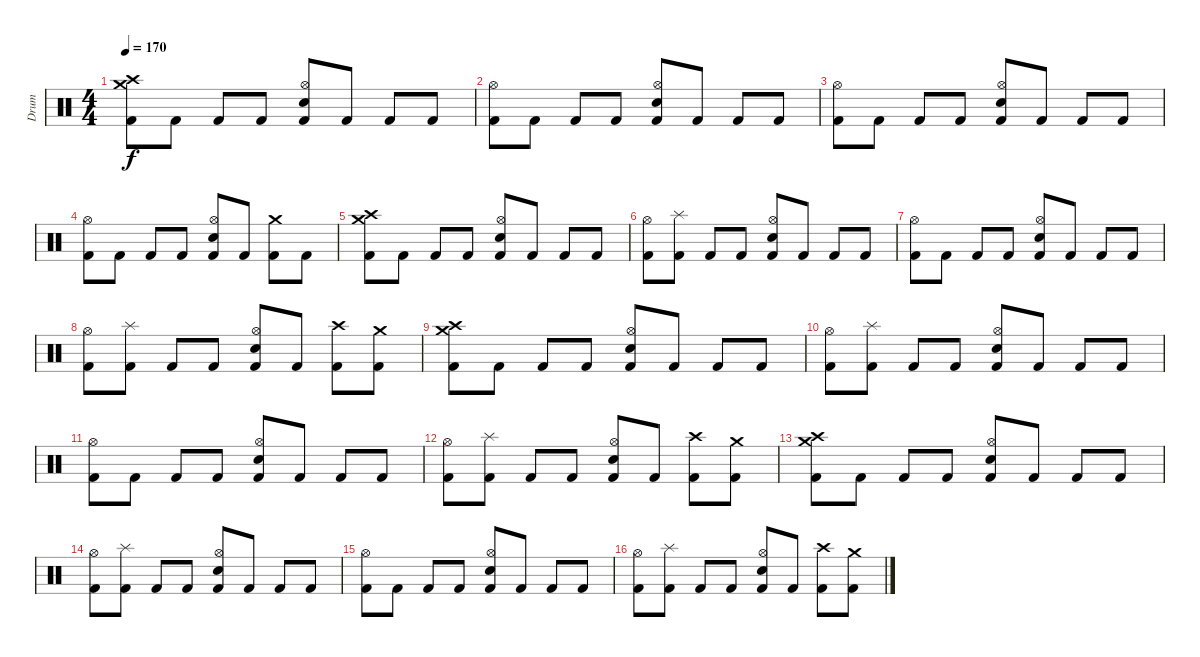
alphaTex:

\track ("Drum" "Drum") {instrument percussion}
\staff {score}
\articulation defaults
\ts (4 4)
\tempo 170
\clef neutral
\ks c
("Crash high (hit)" "Crash medium (hit)" "Kick (hit) 2").8{dy f} "Kick (hit) 2".8 "Kick (hit) 2".8 "Kick (hit) 2".8 ("Hi-Hat (open)" "Snare (hit) 2" "Kick (hit) 2").8 "Kick (hit) 2".8 "Kick (hit) 2".8 "Kick (hit) 2".8 |
("Hi-Hat (open)" "Kick (hit) 2").8 "Kick (hit) 2".8 "Kick (hit) 2".8 "Kick (hit) 2".8 ("Hi-Hat (open)" "Snare (hit) 2" "Kick (hit) 2").8 "Kick (hit) 2".8 "Kick (hit) 2".8 "Kick (hit) 2".8 |
("Hi-Hat (open)" "Kick (hit) 2").8 "Kick (hit) 2".8 "Kick (hit) 2".8 "Kick (hit) 2".8 ("Hi-Hat (open)" "Snare (hit) 2" "Kick (hit) 2").8 "Kick (hit) 2".8 "Kick (hit) 2".8 "Kick (hit) 2".8 |
("Hi-Hat (open)" "Kick (hit) 2").8 "Kick (hit) 2".8 "Kick (hit) 2".8 "Kick (hit) 2".8 ("Hi-Hat (open)" "Snare (hit) 2" "Kick (hit) 2").8 "Kick (hit) 2".8 ("Crash medium (hit)" "Kick (hit) 2").8 "Kick (hit) 2".8 |
("Crash high (hit)" "Crash medium (hit)" "Kick (hit) 2").8 "Kick (hit) 2".8 "Kick (hit) 2".8 "Kick (hit) 2".8 ("Hi-Hat (open)" "Snare (hit) 2" "Kick (hit) 2").8 "Kick (hit) 2".8 "Kick (hit) 2".8 "Kick (hit) 2".8 |
("Hi-Hat (open)" "Kick (hit) 2").8 ("Splash (hit)" "Kick (hit) 2").8 "Kick (hit) 2".8 "Kick (hit) 2".8 ("Hi-Hat (open)" "Snare (hit) 2" "Kick (hit) 2").8 "Kick (hit) 2".8 "Kick (hit) 2".8 "Kick (hit) 2".8 |
("Hi-Hat (open)" "Kick (hit) 2").8 "Kick (hit) 2".8 "Kick (hit) 2".8 "Kick (hit) 2".8 ("Hi-Hat (open)" "Snare (hit) 2" "Kick (hit) 2").8 "Kick (hit) 2".8 "Kick (hit) 2".8 "Kick (hit) 2".8 |
("Hi-Hat (open)" "Kick (hit) 2").8 ("Splash (hit)" "Kick (hit) 2").8 "Kick (hit) 2".8 "Kick (hit) 2".8 ("Hi-Hat (open)" "Snare (hit) 2" "Kick (hit) 2").8 "Kick (hit) 2".8 ("Crash high (hit)" "Kick (hit) 2").8 ("Crash medium (hit)" "Kick (hit) 2").8 |
("Crash high (hit)" "Crash medium (hit)" "Kick (hit) 2").8 "Kick (hit) 2".8 "Kick (hit) 2".8 "Kick (hit) 2".8 ("Hi-Hat (open)" "Snare (hit) 2" "Kick (hit) 2").8 "Kick (hit) 2".8 "Kick (hit) 2".8 "Kick (hit) 2".8 |
("Hi-Hat (open)" "Kick (hit) 2").8 ("Splash (hit)" "Kick (hit) 2").8 "Kick (hit) 2".8 "Kick (hit) 2".8 ("Hi-Hat (open)" "Snare (hit) 2" "Kick (hit) 2").8 "Kick (hit) 2".8 "Kick (hit) 2".8 "Kick (hit) 2".8 |
("Hi-Hat (open)" "Kick (hit) 2").8 "Kick (hit) 2".8 "Kick (hit) 2".8 "Kick (hit) 2".8 ("Hi-Hat (open)" "Snare (hit) 2" "Kick (hit) 2").8 "Kick (hit) 2".8 "Kick (hit) 2".8 "Kick (hit) 2".8 |
("Hi-Hat (open)" "Kick (hit) 2").8 ("Splash (hit)" "Kick (hit) 2").8 "Kick (hit) 2".8 "Kick (hit) 2".8 ("Hi-Hat (open)" "Snare (hit) 2" "Kick (hit) 2").8 "Kick (hit) 2".8 ("Crash high (hit)" "Kick (hit) 2").8 ("Crash medium (hit)" "Kick (hit) 2").8 |
("Crash high (hit)" "Crash medium (hit)" "Kick (hit) 2").8 "Kick (hit) 2".8 "Kick (hit) 2".8 "Kick (hit) 2".8 ("Hi-Hat (open)" "Snare (hit) 2" "Kick (hit) 2").8 "Kick (hit) 2".8 "Kick (hit) 2".8 "Kick (hit) 2".8 |
("Hi-Hat (open)" "Kick (hit) 2").8 ("Splash (hit)" "Kick (hit) 2").8 "Kick (hit) 2".8 "Kick (hit) 2".8 ("Hi-Hat (open)" "Snare (hit) 2" "Kick (hit) 2").8 "Kick (hit) 2".8 "Kick (hit) 2".8 "Kick (hit) 2".8 |
("Hi-Hat (open)" "Kick (hit) 2").8 "Kick (hit) 2".8 "Kick (hit) 2".8 "Kick (hit) 2".8 ("Hi-Hat (open)" "Snare (hit) 2" "Kick (hit) 2").8 "Kick (hit) 2".8 "Kick (hit) 2".8 "Kick (hit) 2".8 |
("Hi-Hat (open)" "Kick (hit) 2").8 ("Splash (hit)" "Kick (hit) 2").8 "Kick (hit) 2".8 "Kick (hit) 2".8 ("Hi-Hat (open)" "Snare (hit) 2" "Kick (hit) 2").8 "Kick (hit) 2".8 ("Crash high (hit)" "Kick (hit) 2").8 ("Crash medium (hit)" "Kick (hit) 2").8
